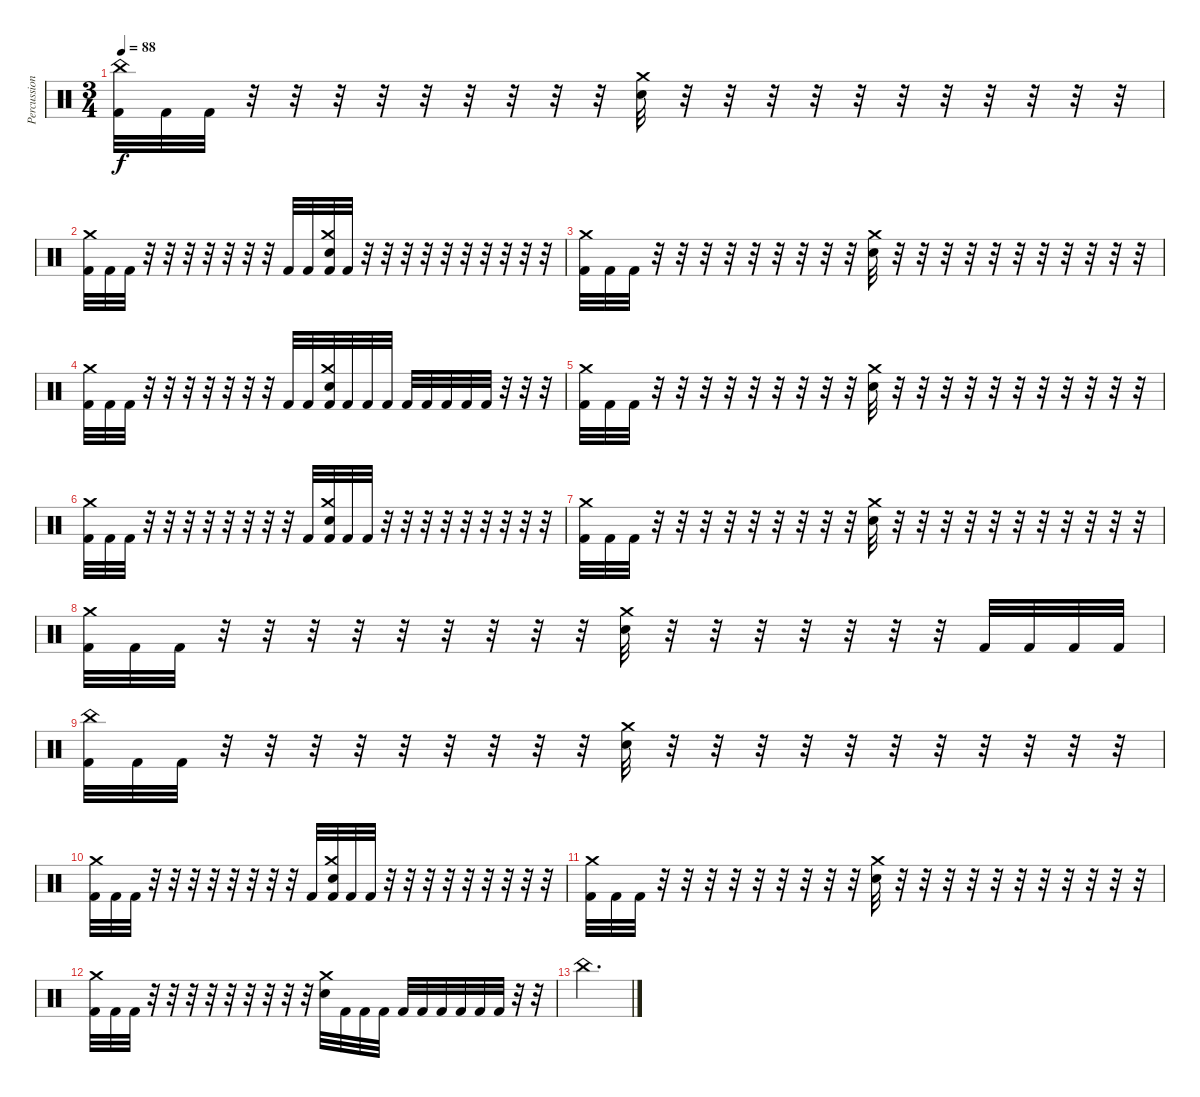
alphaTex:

\track ("Percussion [Optional]" "Percussion") {instrument percussion}
\staff {score}
\articulation defaults
\ts (3 4)
\tempo 88
\clef neutral
\ks c
("China (hit)" "Kick (hit) 2").32{dy f} "Kick (hit) 2".32 "Kick (hit) 2".32 r.32 r.32 r.32 r.32 r.32 r.32 r.32 r.32 r.32 ("Crash medium (hit)" "Electric Snare (hit)").32 r.32 r.32 r.32 r.32 r.32 r.32 r.32 r.32 r.32 r.32 r.32 |
("Crash medium (hit)" "Kick (hit) 2").32 "Kick (hit) 2".32 "Kick (hit) 2".32 r.32 r.32 r.32 r.32 r.32 r.32 r.32 "Kick (hit) 2".32 "Kick (hit) 2".32 ("Crash medium (hit)" "Electric Snare (hit)" "Kick (hit) 2").32 "Kick (hit) 2".32 r.32 r.32 r.32 r.32 r.32 r.32 r.32 r.32 r.32 r.32 |
("Crash medium (hit)" "Kick (hit) 2").32 "Kick (hit) 2".32 "Kick (hit) 2".32 r.32 r.32 r.32 r.32 r.32 r.32 r.32 r.32 r.32 ("Crash medium (hit)" "Electric Snare (hit)").32 r.32 r.32 r.32 r.32 r.32 r.32 r.32 r.32 r.32 r.32 r.32 |
("Crash medium (hit)" "Kick (hit) 2").32 "Kick (hit) 2".32 "Kick (hit) 2".32 r.32 r.32 r.32 r.32 r.32 r.32 r.32 "Kick (hit) 2".32 "Kick (hit) 2".32 ("Crash medium (hit)" "Electric Snare (hit)" "Kick (hit) 2").32 "Kick (hit) 2".32 "Kick (hit) 2".32 "Kick (hit) 2".32 "Kick (hit) 2".32 "Kick (hit) 2".32 "Kick (hit) 2".32 "Kick (hit) 2".32 "Kick (hit) 2".32 r.32 r.32 r.32 |
("Crash medium (hit)" "Kick (hit) 2").32 "Kick (hit) 2".32 "Kick (hit) 2".32 r.32 r.32 r.32 r.32 r.32 r.32 r.32 r.32 r.32 ("Crash medium (hit)" "Electric Snare (hit)").32 r.32 r.32 r.32 r.32 r.32 r.32 r.32 r.32 r.32 r.32 r.32 |
("Crash medium (hit)" "Kick (hit) 2").32 "Kick (hit) 2".32 "Kick (hit) 2".32 r.32 r.32 r.32 r.32 r.32 r.32 r.32 r.32 "Kick (hit) 2".32 ("Crash medium (hit)" "Electric Snare (hit)" "Kick (hit) 2").32 "Kick (hit) 2".32 "Kick (hit) 2".32 r.32 r.32 r.32 r.32 r.32 r.32 r.32 r.32 r.32 |
("Crash medium (hit)" "Kick (hit) 2").32 "Kick (hit) 2".32 "Kick (hit) 2".32 r.32 r.32 r.32 r.32 r.32 r.32 r.32 r.32 r.32 ("Crash medium (hit)" "Electric Snare (hit)").32 r.32 r.32 r.32 r.32 r.32 r.32 r.32 r.32 r.32 r.32 r.32 |
("Crash medium (hit)" "Kick (hit) 2").32 "Kick (hit) 2".32 "Kick (hit) 2".32 r.32 r.32 r.32 r.32 r.32 r.32 r.32 r.32 r.32 ("Crash medium (hit)" "Electric Snare (hit)").32 r.32 r.32 r.32 r.32 r.32 r.32 r.32 "Kick (hit) 2".32 "Kick (hit) 2".32 "Kick (hit) 2".32 "Kick (hit) 2".32 |
("China (hit)" "Kick (hit) 2").32 "Kick (hit) 2".32 "Kick (hit) 2".32 r.32 r.32 r.32 r.32 r.32 r.32 r.32 r.32 r.32 ("Crash medium (hit)" "Electric Snare (hit)").32 r.32 r.32 r.32 r.32 r.32 r.32 r.32 r.32 r.32 r.32 r.32 |
("Crash medium (hit)" "Kick (hit) 2").32 "Kick (hit) 2".32 "Kick (hit) 2".32 r.32 r.32 r.32 r.32 r.32 r.32 r.32 r.32 "Kick (hit) 2".32 ("Crash medium (hit)" "Electric Snare (hit)" "Kick (hit) 2").32 "Kick (hit) 2".32 "Kick (hit) 2".32 r.32 r.32 r.32 r.32 r.32 r.32 r.32 r.32 r.32 |
("Crash medium (hit)" "Kick (hit) 2").32 "Kick (hit) 2".32 "Kick (hit) 2".32 r.32 r.32 r.32 r.32 r.32 r.32 r.32 r.32 r.32 ("Crash medium (hit)" "Electric Snare (hit)").32 r.32 r.32 r.32 r.32 r.32 r.32 r.32 r.32 r.32 r.32 r.32 |
("Crash medium (hit)" "Kick (hit) 2").32 "Kick (hit) 2".32 "Kick (hit) 2".32 r.32 r.32 r.32 r.32 r.32 r.32 r.32 r.32 r.32 ("Crash medium (hit)" "Electric Snare (hit)").32 "Kick (hit) 2".32 "Kick (hit) 2".32 "Kick (hit) 2".32 "Kick (hit) 2".32 "Kick (hit) 2".32 "Kick (hit) 2".32 "Kick (hit) 2".32 "Kick (hit) 2".32 "Kick (hit) 2".32 r.32 r.32 |
"China (hit)".2{d}
